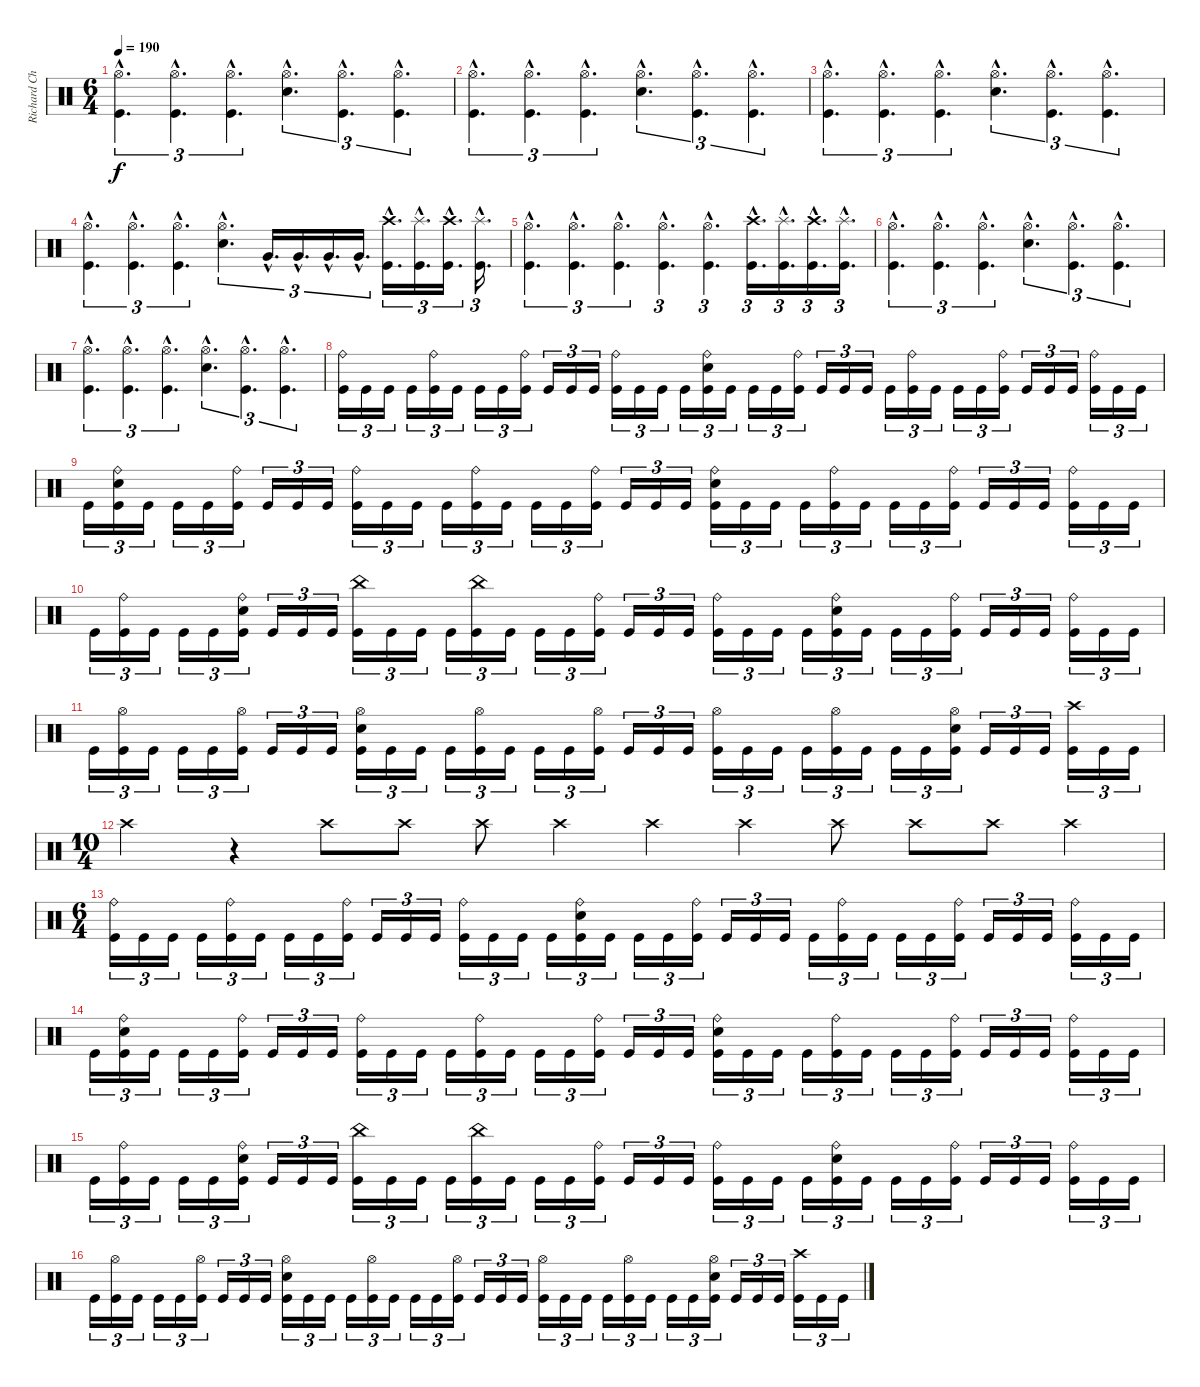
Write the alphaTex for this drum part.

\track ("Richard Christy" "Richard Ch") {instrument percussion}
\staff {score}
\articulation defaults
\ts (6 4)
\tempo 190
\clef neutral
\ks c
("Hi-Hat (open)"{hac} "Kick (hit)"{hac}).4{d tu (3 2) dy f} ("Hi-Hat (open)"{hac} "Kick (hit)"{hac}).4{d tu (3 2)} ("Hi-Hat (open)"{hac} "Kick (hit)"{hac}).4{d tu (3 2)} ("Hi-Hat (open)"{hac} "Snare (hit) 2"{hac}).4{d tu (3 2)} ("Hi-Hat (open)"{hac} "Kick (hit)"{hac}).4{d tu (3 2)} ("Hi-Hat (open)"{hac} "Kick (hit)"{hac}).4{d tu (3 2)} |
("Hi-Hat (open)"{hac} "Kick (hit)"{hac}).4{d tu (3 2)} ("Hi-Hat (open)"{hac} "Kick (hit)"{hac}).4{d tu (3 2)} ("Hi-Hat (open)"{hac} "Kick (hit)"{hac}).4{d tu (3 2)} ("Hi-Hat (open)"{hac} "Snare (hit) 2"{hac}).4{d tu (3 2)} ("Hi-Hat (open)"{hac} "Kick (hit)"{hac}).4{d tu (3 2)} ("Hi-Hat (open)"{hac} "Kick (hit)"{hac}).4{d tu (3 2)} |
("Hi-Hat (open)"{hac} "Kick (hit)"{hac}).4{d tu (3 2)} ("Hi-Hat (open)"{hac} "Kick (hit)"{hac}).4{d tu (3 2)} ("Hi-Hat (open)"{hac} "Kick (hit)"{hac}).4{d tu (3 2)} ("Hi-Hat (open)"{hac} "Snare (hit) 2"{hac}).4{d tu (3 2)} ("Hi-Hat (open)"{hac} "Kick (hit)"{hac}).4{d tu (3 2)} ("Hi-Hat (open)"{hac} "Kick (hit)"{hac}).4{d tu (3 2)} |
("Hi-Hat (open)"{hac} "Kick (hit)"{hac}).4{d tu (3 2)} ("Hi-Hat (open)"{hac} "Kick (hit)"{hac}).4{d tu (3 2)} ("Hi-Hat (open)"{hac} "Kick (hit)"{hac}).4{d tu (3 2)} ("Hi-Hat (open)"{hac} "Snare (hit) 2"{hac}).4{d tu (3 2)} "Very Low Tom (hit)"{hac}.16{d tu (3 2)} "Very Low Tom (hit)"{hac}.16{d tu (3 2)} "Very Low Tom (hit)"{hac}.16{d tu (3 2)} "Very Low Tom (hit)"{hac}.16{d tu (3 2)} ("Crash high (hit)"{hac} "Kick (hit)"{hac}).16{d tu (3 2)} ("Splash (hit)"{hac} "Kick (hit)"{hac}).16{d tu (3 2)} ("Crash high (hit)"{hac} "Kick (hit)"{hac}).16{d tu (3 2)} ("Splash (hit)"{hac} "Kick (hit)"{hac}).16{d tu (3 2)} |
("Hi-Hat (open)"{hac} "Kick (hit)"{hac}).4{d tu (3 2)} ("Hi-Hat (open)"{hac} "Kick (hit)"{hac}).4{d tu (3 2)} ("Hi-Hat (open)"{hac} "Kick (hit)"{hac}).4{d tu (3 2)} ("Hi-Hat (open)"{hac} "Kick (hit)"{hac}).4{d tu (3 2)} ("Hi-Hat (open)"{hac} "Kick (hit)"{hac}).4{d tu (3 2)} ("Crash high (hit)"{hac} "Kick (hit)"{hac}).16{d tu (3 2)} ("Splash (hit)"{hac} "Kick (hit)"{hac}).16{d tu (3 2)} ("Crash high (hit)"{hac} "Kick (hit)"{hac}).16{d tu (3 2)} ("Splash (hit)"{hac} "Kick (hit)"{hac}).16{d tu (3 2)} |
("Hi-Hat (open)"{hac} "Kick (hit)"{hac}).4{d tu (3 2)} ("Hi-Hat (open)"{hac} "Kick (hit)"{hac}).4{d tu (3 2)} ("Hi-Hat (open)"{hac} "Kick (hit)"{hac}).4{d tu (3 2)} ("Hi-Hat (open)"{hac} "Snare (hit) 2"{hac}).4{d tu (3 2)} ("Hi-Hat (open)"{hac} "Kick (hit)"{hac}).4{d tu (3 2)} ("Hi-Hat (open)"{hac} "Kick (hit)"{hac}).4{d tu (3 2)} |
("Hi-Hat (open)"{hac} "Kick (hit)"{hac}).4{d tu (3 2)} ("Hi-Hat (open)"{hac} "Kick (hit)"{hac}).4{d tu (3 2)} ("Hi-Hat (open)"{hac} "Kick (hit)"{hac}).4{d tu (3 2)} ("Hi-Hat (open)"{hac} "Snare (hit) 2"{hac}).4{d tu (3 2)} ("Hi-Hat (open)"{hac} "Kick (hit)"{hac}).4{d tu (3 2)} ("Hi-Hat (open)"{hac} "Kick (hit)"{hac}).4{d tu (3 2)} |
("Ride (bell)" "Kick (hit)").16{tu (3 2)} "Kick (hit)".16{tu (3 2)} "Kick (hit)".16{tu (3 2)} "Kick (hit)".16{tu (3 2)} ("Ride (bell)" "Kick (hit)").16{tu (3 2)} "Kick (hit)".16{tu (3 2)} "Kick (hit)".16{tu (3 2)} "Kick (hit)".16{tu (3 2)} ("Ride (bell)" "Kick (hit)").16{tu (3 2)} "Kick (hit)".16{tu (3 2)} "Kick (hit)".16{tu (3 2)} "Kick (hit)".16{tu (3 2)} ("Ride (bell)" "Kick (hit)").16{tu (3 2)} "Kick (hit)".16{tu (3 2)} "Kick (hit)".16{tu (3 2)} "Kick (hit)".16{tu (3 2)} ("Ride (bell)" "Snare (hit) 2" "Kick (hit)").16{tu (3 2)} "Kick (hit)".16{tu (3 2)} "Kick (hit)".16{tu (3 2)} "Kick (hit)".16{tu (3 2)} ("Ride (bell)" "Kick (hit)").16{tu (3 2)} "Kick (hit)".16{tu (3 2)} "Kick (hit)".16{tu (3 2)} "Kick (hit)".16{tu (3 2)} "Kick (hit)".16{tu (3 2)} ("Ride (bell)" "Kick (hit)").16{tu (3 2)} "Kick (hit)".16{tu (3 2)} "Kick (hit)".16{tu (3 2)} "Kick (hit)".16{tu (3 2)} ("Ride (bell)" "Kick (hit)").16{tu (3 2)} "Kick (hit)".16{tu (3 2)} "Kick (hit)".16{tu (3 2)} "Kick (hit)".16{tu (3 2)} ("Ride (bell)" "Kick (hit)").16{tu (3 2)} "Kick (hit)".16{tu (3 2)} "Kick (hit)".16{tu (3 2)} |
"Kick (hit)".16{tu (3 2)} ("Ride (bell)" "Snare (hit) 2" "Kick (hit)").16{tu (3 2)} "Kick (hit)".16{tu (3 2)} "Kick (hit)".16{tu (3 2)} "Kick (hit)".16{tu (3 2)} ("Ride (bell)" "Kick (hit)").16{tu (3 2)} "Kick (hit)".16{tu (3 2)} "Kick (hit)".16{tu (3 2)} "Kick (hit)".16{tu (3 2)} ("Ride (bell)" "Kick (hit)").16{tu (3 2)} "Kick (hit)".16{tu (3 2)} "Kick (hit)".16{tu (3 2)} "Kick (hit)".16{tu (3 2)} ("Ride (bell)" "Kick (hit)").16{tu (3 2)} "Kick (hit)".16{tu (3 2)} "Kick (hit)".16{tu (3 2)} "Kick (hit)".16{tu (3 2)} ("Ride (bell)" "Kick (hit)").16{tu (3 2)} "Kick (hit)".16{tu (3 2)} "Kick (hit)".16{tu (3 2)} "Kick (hit)".16{tu (3 2)} ("Ride (bell)" "Snare (hit) 2" "Kick (hit)").16{tu (3 2)} "Kick (hit)".16{tu (3 2)} "Kick (hit)".16{tu (3 2)} "Kick (hit)".16{tu (3 2)} ("Ride (bell)" "Kick (hit)").16{tu (3 2)} "Kick (hit)".16{tu (3 2)} "Kick (hit)".16{tu (3 2)} "Kick (hit)".16{tu (3 2)} ("Ride (bell)" "Kick (hit)").16{tu (3 2)} "Kick (hit)".16{tu (3 2)} "Kick (hit)".16{tu (3 2)} "Kick (hit)".16{tu (3 2)} ("Ride (bell)" "Kick (hit)").16{tu (3 2)} "Kick (hit)".16{tu (3 2)} "Kick (hit)".16{tu (3 2)} |
"Kick (hit)".16{tu (3 2)} ("Ride (bell)" "Kick (hit)").16{tu (3 2)} "Kick (hit)".16{tu (3 2)} "Kick (hit)".16{tu (3 2)} "Kick (hit)".16{tu (3 2)} ("Ride (bell)" "Snare (hit) 2" "Kick (hit)").16{tu (3 2)} "Kick (hit)".16{tu (3 2)} "Kick (hit)".16{tu (3 2)} "Kick (hit)".16{tu (3 2)} ("China (hit)" "Kick (hit)").16{tu (3 2)} "Kick (hit)".16{tu (3 2)} "Kick (hit)".16{tu (3 2)} "Kick (hit)".16{tu (3 2)} ("China (hit)" "Kick (hit)").16{tu (3 2)} "Kick (hit)".16{tu (3 2)} "Kick (hit)".16{tu (3 2)} "Kick (hit)".16{tu (3 2)} ("Ride (bell)" "Kick (hit)").16{tu (3 2)} "Kick (hit)".16{tu (3 2)} "Kick (hit)".16{tu (3 2)} "Kick (hit)".16{tu (3 2)} ("Ride (bell)" "Kick (hit)").16{tu (3 2)} "Kick (hit)".16{tu (3 2)} "Kick (hit)".16{tu (3 2)} "Kick (hit)".16{tu (3 2)} ("Ride (bell)" "Snare (hit) 2" "Kick (hit)").16{tu (3 2)} "Kick (hit)".16{tu (3 2)} "Kick (hit)".16{tu (3 2)} "Kick (hit)".16{tu (3 2)} ("Ride (bell)" "Kick (hit)").16{tu (3 2)} "Kick (hit)".16{tu (3 2)} "Kick (hit)".16{tu (3 2)} "Kick (hit)".16{tu (3 2)} ("Ride (bell)" "Kick (hit)").16{tu (3 2)} "Kick (hit)".16{tu (3 2)} "Kick (hit)".16{tu (3 2)} |
"Kick (hit)".16{tu (3 2)} ("Hi-Hat (open)" "Kick (hit)").16{tu (3 2)} "Kick (hit)".16{tu (3 2)} "Kick (hit)".16{tu (3 2)} "Kick (hit)".16{tu (3 2)} ("Hi-Hat (open)" "Kick (hit)").16{tu (3 2)} "Kick (hit)".16{tu (3 2)} "Kick (hit)".16{tu (3 2)} "Kick (hit)".16{tu (3 2)} ("Hi-Hat (open)" "Snare (hit) 2" "Kick (hit)").16{tu (3 2)} "Kick (hit)".16{tu (3 2)} "Kick (hit)".16{tu (3 2)} "Kick (hit)".16{tu (3 2)} ("Hi-Hat (open)" "Kick (hit)").16{tu (3 2)} "Kick (hit)".16{tu (3 2)} "Kick (hit)".16{tu (3 2)} "Kick (hit)".16{tu (3 2)} ("Hi-Hat (open)" "Kick (hit)").16{tu (3 2)} "Kick (hit)".16{tu (3 2)} "Kick (hit)".16{tu (3 2)} "Kick (hit)".16{tu (3 2)} ("Hi-Hat (open)" "Kick (hit)").16{tu (3 2)} "Kick (hit)".16{tu (3 2)} "Kick (hit)".16{tu (3 2)} "Kick (hit)".16{tu (3 2)} ("Hi-Hat (open)" "Kick (hit)").16{tu (3 2)} "Kick (hit)".16{tu (3 2)} "Kick (hit)".16{tu (3 2)} "Kick (hit)".16{tu (3 2)} ("Hi-Hat (open)" "Snare (hit) 2" "Kick (hit)").16{tu (3 2)} "Kick (hit)".16{tu (3 2)} "Kick (hit)".16{tu (3 2)} "Kick (hit)".16{tu (3 2)} ("Crash high (hit)" "Kick (hit)").16{tu (3 2)} "Kick (hit)".16{tu (3 2)} "Kick (hit)".16{tu (3 2)} |
\ts (10 4)
"Crash high (hit)".2 r.4 "Crash high (hit)".8 "Crash high (hit)".8 "Crash high (hit)".8 "Crash high (hit)".4 "Crash high (hit)".4{volume 0} "Crash high (hit)".4{volume 16} "Crash high (hit)".8 "Crash high (hit)".8 "Crash high (hit)".8 "Crash high (hit)".4{volume 0} |
\ts (6 4)
("Ride (bell)" "Kick (hit)").16{tu (3 2) volume 16} "Kick (hit)".16{tu (3 2)} "Kick (hit)".16{tu (3 2)} "Kick (hit)".16{tu (3 2)} ("Ride (bell)" "Kick (hit)").16{tu (3 2)} "Kick (hit)".16{tu (3 2)} "Kick (hit)".16{tu (3 2)} "Kick (hit)".16{tu (3 2)} ("Ride (bell)" "Kick (hit)").16{tu (3 2)} "Kick (hit)".16{tu (3 2)} "Kick (hit)".16{tu (3 2)} "Kick (hit)".16{tu (3 2)} ("Ride (bell)" "Kick (hit)").16{tu (3 2)} "Kick (hit)".16{tu (3 2)} "Kick (hit)".16{tu (3 2)} "Kick (hit)".16{tu (3 2)} ("Ride (bell)" "Snare (hit) 2" "Kick (hit)").16{tu (3 2)} "Kick (hit)".16{tu (3 2)} "Kick (hit)".16{tu (3 2)} "Kick (hit)".16{tu (3 2)} ("Ride (bell)" "Kick (hit)").16{tu (3 2)} "Kick (hit)".16{tu (3 2)} "Kick (hit)".16{tu (3 2)} "Kick (hit)".16{tu (3 2)} "Kick (hit)".16{tu (3 2)} ("Ride (bell)" "Kick (hit)").16{tu (3 2)} "Kick (hit)".16{tu (3 2)} "Kick (hit)".16{tu (3 2)} "Kick (hit)".16{tu (3 2)} ("Ride (bell)" "Kick (hit)").16{tu (3 2)} "Kick (hit)".16{tu (3 2)} "Kick (hit)".16{tu (3 2)} "Kick (hit)".16{tu (3 2)} ("Ride (bell)" "Kick (hit)").16{tu (3 2)} "Kick (hit)".16{tu (3 2)} "Kick (hit)".16{tu (3 2)} |
"Kick (hit)".16{tu (3 2)} ("Ride (bell)" "Snare (hit) 2" "Kick (hit)").16{tu (3 2)} "Kick (hit)".16{tu (3 2)} "Kick (hit)".16{tu (3 2)} "Kick (hit)".16{tu (3 2)} ("Ride (bell)" "Kick (hit)").16{tu (3 2)} "Kick (hit)".16{tu (3 2)} "Kick (hit)".16{tu (3 2)} "Kick (hit)".16{tu (3 2)} ("Ride (bell)" "Kick (hit)").16{tu (3 2)} "Kick (hit)".16{tu (3 2)} "Kick (hit)".16{tu (3 2)} "Kick (hit)".16{tu (3 2)} ("Ride (bell)" "Kick (hit)").16{tu (3 2)} "Kick (hit)".16{tu (3 2)} "Kick (hit)".16{tu (3 2)} "Kick (hit)".16{tu (3 2)} ("Ride (bell)" "Kick (hit)").16{tu (3 2)} "Kick (hit)".16{tu (3 2)} "Kick (hit)".16{tu (3 2)} "Kick (hit)".16{tu (3 2)} ("Ride (bell)" "Snare (hit) 2" "Kick (hit)").16{tu (3 2)} "Kick (hit)".16{tu (3 2)} "Kick (hit)".16{tu (3 2)} "Kick (hit)".16{tu (3 2)} ("Ride (bell)" "Kick (hit)").16{tu (3 2)} "Kick (hit)".16{tu (3 2)} "Kick (hit)".16{tu (3 2)} "Kick (hit)".16{tu (3 2)} ("Ride (bell)" "Kick (hit)").16{tu (3 2)} "Kick (hit)".16{tu (3 2)} "Kick (hit)".16{tu (3 2)} "Kick (hit)".16{tu (3 2)} ("Ride (bell)" "Kick (hit)").16{tu (3 2)} "Kick (hit)".16{tu (3 2)} "Kick (hit)".16{tu (3 2)} |
"Kick (hit)".16{tu (3 2)} ("Ride (bell)" "Kick (hit)").16{tu (3 2)} "Kick (hit)".16{tu (3 2)} "Kick (hit)".16{tu (3 2)} "Kick (hit)".16{tu (3 2)} ("Ride (bell)" "Snare (hit) 2" "Kick (hit)").16{tu (3 2)} "Kick (hit)".16{tu (3 2)} "Kick (hit)".16{tu (3 2)} "Kick (hit)".16{tu (3 2)} ("China (hit)" "Kick (hit)").16{tu (3 2)} "Kick (hit)".16{tu (3 2)} "Kick (hit)".16{tu (3 2)} "Kick (hit)".16{tu (3 2)} ("China (hit)" "Kick (hit)").16{tu (3 2)} "Kick (hit)".16{tu (3 2)} "Kick (hit)".16{tu (3 2)} "Kick (hit)".16{tu (3 2)} ("Ride (bell)" "Kick (hit)").16{tu (3 2)} "Kick (hit)".16{tu (3 2)} "Kick (hit)".16{tu (3 2)} "Kick (hit)".16{tu (3 2)} ("Ride (bell)" "Kick (hit)").16{tu (3 2)} "Kick (hit)".16{tu (3 2)} "Kick (hit)".16{tu (3 2)} "Kick (hit)".16{tu (3 2)} ("Ride (bell)" "Snare (hit) 2" "Kick (hit)").16{tu (3 2)} "Kick (hit)".16{tu (3 2)} "Kick (hit)".16{tu (3 2)} "Kick (hit)".16{tu (3 2)} ("Ride (bell)" "Kick (hit)").16{tu (3 2)} "Kick (hit)".16{tu (3 2)} "Kick (hit)".16{tu (3 2)} "Kick (hit)".16{tu (3 2)} ("Ride (bell)" "Kick (hit)").16{tu (3 2)} "Kick (hit)".16{tu (3 2)} "Kick (hit)".16{tu (3 2)} |
"Kick (hit)".16{tu (3 2)} ("Hi-Hat (open)" "Kick (hit)").16{tu (3 2)} "Kick (hit)".16{tu (3 2)} "Kick (hit)".16{tu (3 2)} "Kick (hit)".16{tu (3 2)} ("Hi-Hat (open)" "Kick (hit)").16{tu (3 2)} "Kick (hit)".16{tu (3 2)} "Kick (hit)".16{tu (3 2)} "Kick (hit)".16{tu (3 2)} ("Hi-Hat (open)" "Snare (hit) 2" "Kick (hit)").16{tu (3 2)} "Kick (hit)".16{tu (3 2)} "Kick (hit)".16{tu (3 2)} "Kick (hit)".16{tu (3 2)} ("Hi-Hat (open)" "Kick (hit)").16{tu (3 2)} "Kick (hit)".16{tu (3 2)} "Kick (hit)".16{tu (3 2)} "Kick (hit)".16{tu (3 2)} ("Hi-Hat (open)" "Kick (hit)").16{tu (3 2)} "Kick (hit)".16{tu (3 2)} "Kick (hit)".16{tu (3 2)} "Kick (hit)".16{tu (3 2)} ("Hi-Hat (open)" "Kick (hit)").16{tu (3 2)} "Kick (hit)".16{tu (3 2)} "Kick (hit)".16{tu (3 2)} "Kick (hit)".16{tu (3 2)} ("Hi-Hat (open)" "Kick (hit)").16{tu (3 2)} "Kick (hit)".16{tu (3 2)} "Kick (hit)".16{tu (3 2)} "Kick (hit)".16{tu (3 2)} ("Hi-Hat (open)" "Snare (hit) 2" "Kick (hit)").16{tu (3 2)} "Kick (hit)".16{tu (3 2)} "Kick (hit)".16{tu (3 2)} "Kick (hit)".16{tu (3 2)} ("Crash high (hit)" "Kick (hit)").16{tu (3 2)} "Kick (hit)".16{tu (3 2)} "Kick (hit)".16{tu (3 2)}
